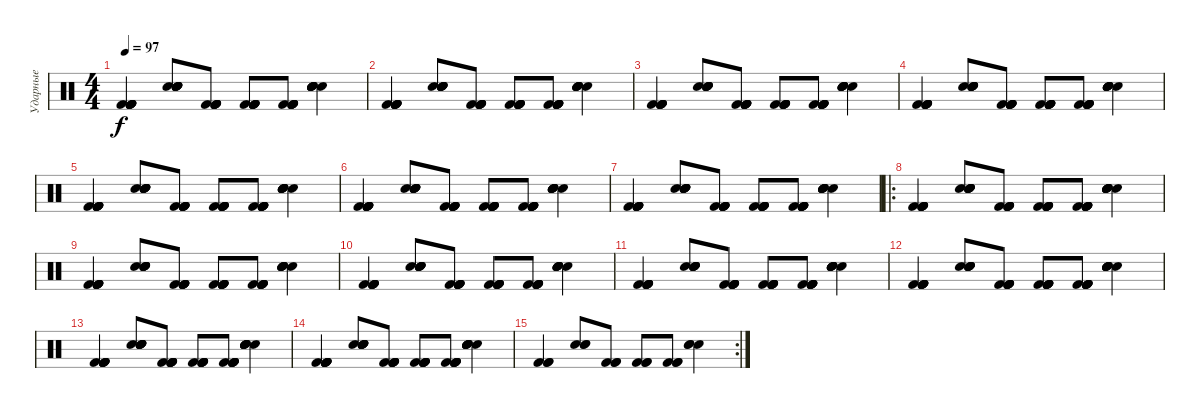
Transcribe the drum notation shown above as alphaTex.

\track ("Ударные" "Ударные") {instrument percussion}
\staff {score}
\articulation defaults
\ts (4 4)
\tempo 97
\clef neutral
\ks c
("Kick (hit) 2" "Kick (hit) 2" "Kick (hit) 2" "Kick (hit) 2" "Kick (hit) 2" "Kick (hit) 2").4{dy f} ("Snare (hit) 2" "Snare (hit) 2" "Snare (hit) 2" "Snare (hit) 2" "Snare (hit) 2" "Snare (hit) 2").8 ("Kick (hit) 2" "Kick (hit) 2" "Kick (hit) 2" "Kick (hit) 2" "Kick (hit) 2" "Kick (hit) 2").8 ("Kick (hit) 2" "Kick (hit) 2" "Kick (hit) 2" "Kick (hit) 2" "Kick (hit) 2" "Kick (hit) 2").8 ("Kick (hit) 2" "Kick (hit) 2" "Kick (hit) 2" "Kick (hit) 2" "Kick (hit) 2" "Kick (hit) 2").8 ("Snare (hit) 2" "Snare (hit) 2" "Snare (hit) 2" "Snare (hit) 2" "Snare (hit) 2" "Snare (hit) 2").4 |
("Kick (hit) 2" "Kick (hit) 2" "Kick (hit) 2" "Kick (hit) 2" "Kick (hit) 2" "Kick (hit) 2").4 ("Snare (hit) 2" "Snare (hit) 2" "Snare (hit) 2" "Snare (hit) 2" "Snare (hit) 2" "Snare (hit) 2").8 ("Kick (hit) 2" "Kick (hit) 2" "Kick (hit) 2" "Kick (hit) 2" "Kick (hit) 2" "Kick (hit) 2").8 ("Kick (hit) 2" "Kick (hit) 2" "Kick (hit) 2" "Kick (hit) 2" "Kick (hit) 2" "Kick (hit) 2").8 ("Kick (hit) 2" "Kick (hit) 2" "Kick (hit) 2" "Kick (hit) 2" "Kick (hit) 2" "Kick (hit) 2").8 ("Snare (hit) 2" "Snare (hit) 2" "Snare (hit) 2" "Snare (hit) 2" "Snare (hit) 2" "Snare (hit) 2").4 |
("Kick (hit) 2" "Kick (hit) 2" "Kick (hit) 2" "Kick (hit) 2" "Kick (hit) 2" "Kick (hit) 2").4 ("Snare (hit) 2" "Snare (hit) 2" "Snare (hit) 2" "Snare (hit) 2" "Snare (hit) 2" "Snare (hit) 2").8 ("Kick (hit) 2" "Kick (hit) 2" "Kick (hit) 2" "Kick (hit) 2" "Kick (hit) 2" "Kick (hit) 2").8 ("Kick (hit) 2" "Kick (hit) 2" "Kick (hit) 2" "Kick (hit) 2" "Kick (hit) 2" "Kick (hit) 2").8 ("Kick (hit) 2" "Kick (hit) 2" "Kick (hit) 2" "Kick (hit) 2" "Kick (hit) 2" "Kick (hit) 2").8 ("Snare (hit) 2" "Snare (hit) 2" "Snare (hit) 2" "Snare (hit) 2" "Snare (hit) 2" "Snare (hit) 2").4 |
("Kick (hit) 2" "Kick (hit) 2" "Kick (hit) 2" "Kick (hit) 2" "Kick (hit) 2" "Kick (hit) 2").4 ("Snare (hit) 2" "Snare (hit) 2" "Snare (hit) 2" "Snare (hit) 2" "Snare (hit) 2" "Snare (hit) 2").8 ("Kick (hit) 2" "Kick (hit) 2" "Kick (hit) 2" "Kick (hit) 2" "Kick (hit) 2" "Kick (hit) 2").8 ("Kick (hit) 2" "Kick (hit) 2" "Kick (hit) 2" "Kick (hit) 2" "Kick (hit) 2" "Kick (hit) 2").8 ("Kick (hit) 2" "Kick (hit) 2" "Kick (hit) 2" "Kick (hit) 2" "Kick (hit) 2" "Kick (hit) 2").8 ("Snare (hit) 2" "Snare (hit) 2" "Snare (hit) 2" "Snare (hit) 2" "Snare (hit) 2" "Snare (hit) 2").4 |
("Kick (hit) 2" "Kick (hit) 2" "Kick (hit) 2" "Kick (hit) 2" "Kick (hit) 2" "Kick (hit) 2").4 ("Snare (hit) 2" "Snare (hit) 2" "Snare (hit) 2" "Snare (hit) 2" "Snare (hit) 2" "Snare (hit) 2").8 ("Kick (hit) 2" "Kick (hit) 2" "Kick (hit) 2" "Kick (hit) 2" "Kick (hit) 2" "Kick (hit) 2").8 ("Kick (hit) 2" "Kick (hit) 2" "Kick (hit) 2" "Kick (hit) 2" "Kick (hit) 2" "Kick (hit) 2").8 ("Kick (hit) 2" "Kick (hit) 2" "Kick (hit) 2" "Kick (hit) 2" "Kick (hit) 2" "Kick (hit) 2").8 ("Snare (hit) 2" "Snare (hit) 2" "Snare (hit) 2" "Snare (hit) 2" "Snare (hit) 2" "Snare (hit) 2").4 |
("Kick (hit) 2" "Kick (hit) 2" "Kick (hit) 2" "Kick (hit) 2" "Kick (hit) 2" "Kick (hit) 2").4 ("Snare (hit) 2" "Snare (hit) 2" "Snare (hit) 2" "Snare (hit) 2" "Snare (hit) 2" "Snare (hit) 2").8 ("Kick (hit) 2" "Kick (hit) 2" "Kick (hit) 2" "Kick (hit) 2" "Kick (hit) 2" "Kick (hit) 2").8 ("Kick (hit) 2" "Kick (hit) 2" "Kick (hit) 2" "Kick (hit) 2" "Kick (hit) 2" "Kick (hit) 2").8 ("Kick (hit) 2" "Kick (hit) 2" "Kick (hit) 2" "Kick (hit) 2" "Kick (hit) 2" "Kick (hit) 2").8 ("Snare (hit) 2" "Snare (hit) 2" "Snare (hit) 2" "Snare (hit) 2" "Snare (hit) 2" "Snare (hit) 2").4 |
("Kick (hit) 2" "Kick (hit) 2" "Kick (hit) 2" "Kick (hit) 2" "Kick (hit) 2" "Kick (hit) 2").4 ("Snare (hit) 2" "Snare (hit) 2" "Snare (hit) 2" "Snare (hit) 2" "Snare (hit) 2" "Snare (hit) 2").8 ("Kick (hit) 2" "Kick (hit) 2" "Kick (hit) 2" "Kick (hit) 2" "Kick (hit) 2" "Kick (hit) 2").8 ("Kick (hit) 2" "Kick (hit) 2" "Kick (hit) 2" "Kick (hit) 2" "Kick (hit) 2" "Kick (hit) 2").8 ("Kick (hit) 2" "Kick (hit) 2" "Kick (hit) 2" "Kick (hit) 2" "Kick (hit) 2" "Kick (hit) 2").8 ("Snare (hit) 2" "Snare (hit) 2" "Snare (hit) 2" "Snare (hit) 2" "Snare (hit) 2" "Snare (hit) 2").4 |
\ro
("Kick (hit) 2" "Kick (hit) 2" "Kick (hit) 2" "Kick (hit) 2" "Kick (hit) 2" "Kick (hit) 2").4 ("Snare (hit) 2" "Snare (hit) 2" "Snare (hit) 2" "Snare (hit) 2" "Snare (hit) 2" "Snare (hit) 2").8 ("Kick (hit) 2" "Kick (hit) 2" "Kick (hit) 2" "Kick (hit) 2" "Kick (hit) 2" "Kick (hit) 2").8 ("Kick (hit) 2" "Kick (hit) 2" "Kick (hit) 2" "Kick (hit) 2" "Kick (hit) 2" "Kick (hit) 2").8 ("Kick (hit) 2" "Kick (hit) 2" "Kick (hit) 2" "Kick (hit) 2" "Kick (hit) 2" "Kick (hit) 2").8 ("Snare (hit) 2" "Snare (hit) 2" "Snare (hit) 2" "Snare (hit) 2" "Snare (hit) 2" "Snare (hit) 2").4 |
("Kick (hit) 2" "Kick (hit) 2" "Kick (hit) 2" "Kick (hit) 2" "Kick (hit) 2" "Kick (hit) 2").4 ("Snare (hit) 2" "Snare (hit) 2" "Snare (hit) 2" "Snare (hit) 2" "Snare (hit) 2" "Snare (hit) 2").8 ("Kick (hit) 2" "Kick (hit) 2" "Kick (hit) 2" "Kick (hit) 2" "Kick (hit) 2" "Kick (hit) 2").8 ("Kick (hit) 2" "Kick (hit) 2" "Kick (hit) 2" "Kick (hit) 2" "Kick (hit) 2" "Kick (hit) 2").8 ("Kick (hit) 2" "Kick (hit) 2" "Kick (hit) 2" "Kick (hit) 2" "Kick (hit) 2" "Kick (hit) 2").8 ("Snare (hit) 2" "Snare (hit) 2" "Snare (hit) 2" "Snare (hit) 2" "Snare (hit) 2" "Snare (hit) 2").4 |
("Kick (hit) 2" "Kick (hit) 2" "Kick (hit) 2" "Kick (hit) 2" "Kick (hit) 2" "Kick (hit) 2").4 ("Snare (hit) 2" "Snare (hit) 2" "Snare (hit) 2" "Snare (hit) 2" "Snare (hit) 2" "Snare (hit) 2").8 ("Kick (hit) 2" "Kick (hit) 2" "Kick (hit) 2" "Kick (hit) 2" "Kick (hit) 2" "Kick (hit) 2").8 ("Kick (hit) 2" "Kick (hit) 2" "Kick (hit) 2" "Kick (hit) 2" "Kick (hit) 2" "Kick (hit) 2").8 ("Kick (hit) 2" "Kick (hit) 2" "Kick (hit) 2" "Kick (hit) 2" "Kick (hit) 2" "Kick (hit) 2").8 ("Snare (hit) 2" "Snare (hit) 2" "Snare (hit) 2" "Snare (hit) 2" "Snare (hit) 2" "Snare (hit) 2").4 |
("Kick (hit) 2" "Kick (hit) 2" "Kick (hit) 2" "Kick (hit) 2" "Kick (hit) 2" "Kick (hit) 2").4 ("Snare (hit) 2" "Snare (hit) 2" "Snare (hit) 2" "Snare (hit) 2" "Snare (hit) 2" "Snare (hit) 2").8 ("Kick (hit) 2" "Kick (hit) 2" "Kick (hit) 2" "Kick (hit) 2" "Kick (hit) 2" "Kick (hit) 2").8 ("Kick (hit) 2" "Kick (hit) 2" "Kick (hit) 2" "Kick (hit) 2" "Kick (hit) 2" "Kick (hit) 2").8 ("Kick (hit) 2" "Kick (hit) 2" "Kick (hit) 2" "Kick (hit) 2" "Kick (hit) 2" "Kick (hit) 2").8 ("Snare (hit) 2" "Snare (hit) 2" "Snare (hit) 2" "Snare (hit) 2" "Snare (hit) 2" "Snare (hit) 2").4 |
("Kick (hit) 2" "Kick (hit) 2" "Kick (hit) 2" "Kick (hit) 2" "Kick (hit) 2" "Kick (hit) 2").4 ("Snare (hit) 2" "Snare (hit) 2" "Snare (hit) 2" "Snare (hit) 2" "Snare (hit) 2" "Snare (hit) 2").8 ("Kick (hit) 2" "Kick (hit) 2" "Kick (hit) 2" "Kick (hit) 2" "Kick (hit) 2" "Kick (hit) 2").8 ("Kick (hit) 2" "Kick (hit) 2" "Kick (hit) 2" "Kick (hit) 2" "Kick (hit) 2" "Kick (hit) 2").8 ("Kick (hit) 2" "Kick (hit) 2" "Kick (hit) 2" "Kick (hit) 2" "Kick (hit) 2" "Kick (hit) 2").8 ("Snare (hit) 2" "Snare (hit) 2" "Snare (hit) 2" "Snare (hit) 2" "Snare (hit) 2" "Snare (hit) 2").4 |
("Kick (hit) 2" "Kick (hit) 2" "Kick (hit) 2" "Kick (hit) 2" "Kick (hit) 2" "Kick (hit) 2").4 ("Snare (hit) 2" "Snare (hit) 2" "Snare (hit) 2" "Snare (hit) 2" "Snare (hit) 2" "Snare (hit) 2").8 ("Kick (hit) 2" "Kick (hit) 2" "Kick (hit) 2" "Kick (hit) 2" "Kick (hit) 2" "Kick (hit) 2").8 ("Kick (hit) 2" "Kick (hit) 2" "Kick (hit) 2" "Kick (hit) 2" "Kick (hit) 2" "Kick (hit) 2").8 ("Kick (hit) 2" "Kick (hit) 2" "Kick (hit) 2" "Kick (hit) 2" "Kick (hit) 2" "Kick (hit) 2").8 ("Snare (hit) 2" "Snare (hit) 2" "Snare (hit) 2" "Snare (hit) 2" "Snare (hit) 2" "Snare (hit) 2").4 |
("Kick (hit) 2" "Kick (hit) 2" "Kick (hit) 2" "Kick (hit) 2" "Kick (hit) 2" "Kick (hit) 2").4 ("Snare (hit) 2" "Snare (hit) 2" "Snare (hit) 2" "Snare (hit) 2" "Snare (hit) 2" "Snare (hit) 2").8 ("Kick (hit) 2" "Kick (hit) 2" "Kick (hit) 2" "Kick (hit) 2" "Kick (hit) 2" "Kick (hit) 2").8 ("Kick (hit) 2" "Kick (hit) 2" "Kick (hit) 2" "Kick (hit) 2" "Kick (hit) 2" "Kick (hit) 2").8 ("Kick (hit) 2" "Kick (hit) 2" "Kick (hit) 2" "Kick (hit) 2" "Kick (hit) 2" "Kick (hit) 2").8 ("Snare (hit) 2" "Snare (hit) 2" "Snare (hit) 2" "Snare (hit) 2" "Snare (hit) 2" "Snare (hit) 2").4 |
\rc 2
("Kick (hit) 2" "Kick (hit) 2" "Kick (hit) 2").4 ("Snare (hit) 2" "Snare (hit) 2" "Snare (hit) 2").8 ("Kick (hit) 2" "Kick (hit) 2" "Kick (hit) 2").8 ("Kick (hit) 2" "Kick (hit) 2" "Kick (hit) 2").8 ("Kick (hit) 2" "Kick (hit) 2" "Kick (hit) 2").8 ("Snare (hit) 2" "Snare (hit) 2" "Snare (hit) 2").4
